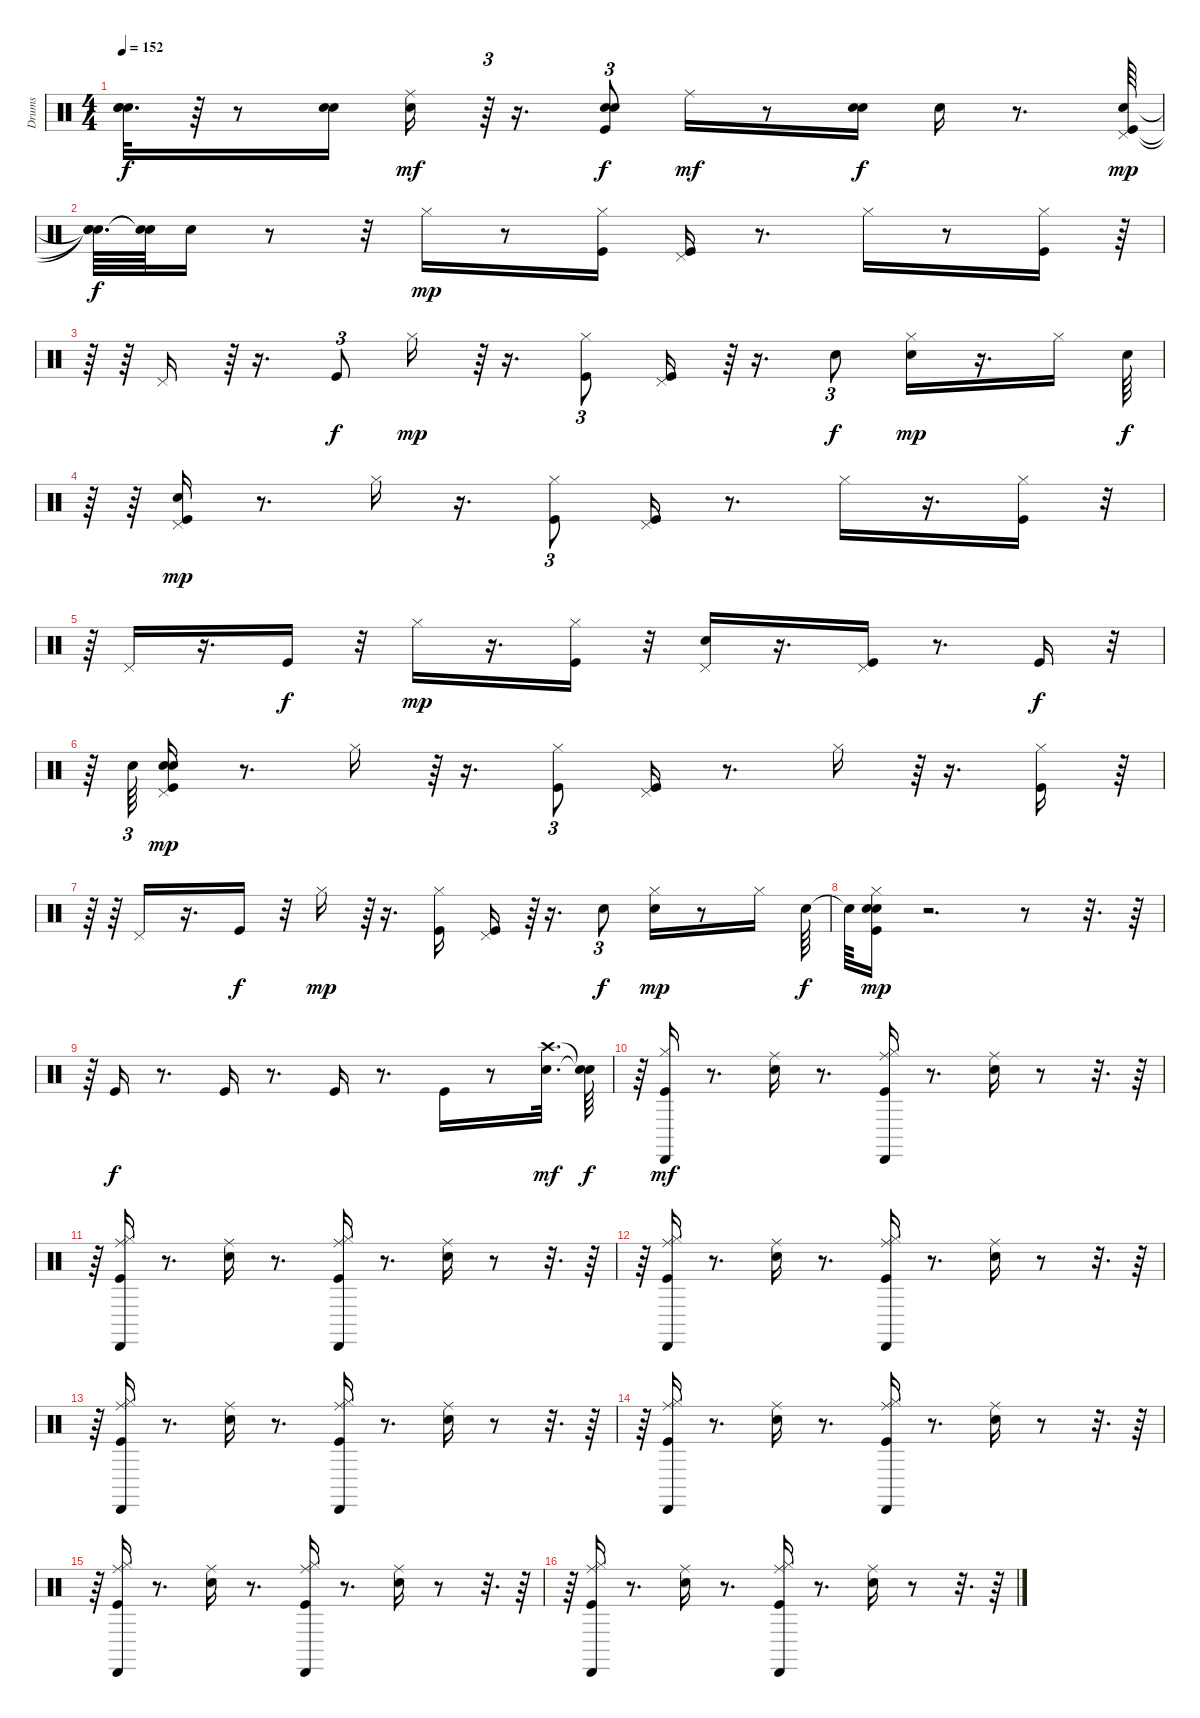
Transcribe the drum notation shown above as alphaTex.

\track ("Drums" "Drums") {instrument percussion}
\staff {score}
\articulation defaults
\ts (4 4)
\tempo 152
\clef neutral
\ks c
("Snare (hit)"{t} "Snare (hit)"{t} "Snare (hit)"{t}).32{d dy f} r.64 r.8 ("Hand Clap (hit)" "Snare (hit) 2").16 ("Snare (hit) 2" "Ride (middle)").16{dy mf} r.64{tu (3 2)} r.16{d} ("Hand Clap (hit)" "Kick (hit)" "Snare (hit) 2").8{tu (3 2) dy f} "Ride (middle)".16{dy mf} r.8 ("Hand Clap (hit)" "Snare (hit) 2").16{dy f} "Snare (hit) 2".16 r.8{d} ("Kick (hit)" "Snare (hit) 2" "Pedal Hi-Hat (hit)").64{dy mp} |
("Snare (hit)"{t} "Snare (hit)"{t} "Snare (hit)"{t}).64{d dy f} ("Snare (hit)"{t} "Snare (hit)"{t}).64 "Snare (hit) 2".16 r.8 r.32 "Hi-Hat (closed)".16{dy mp} r.8 ("Kick (hit)" "Hi-Hat (closed)").16 ("Kick (hit)" "Pedal Hi-Hat (hit)").16 r.8{d} "Hi-Hat (closed)".16 r.8 ("Kick (hit)" "Hi-Hat (closed)").16 r.64 |
r.64 r.64 "Pedal Hi-Hat (hit)".16 r.64{tu (3 2)} r.16{d} "Kick (hit)".8{tu (3 2) dy f} "Hi-Hat (closed)".16{dy mp} r.64{tu (3 2)} r.16{d} ("Kick (hit)" "Hi-Hat (closed)").8{tu (3 2)} ("Kick (hit)" "Pedal Hi-Hat (hit)").16 r.64{tu (3 2)} r.16{d} "Snare (hit) 2".8{tu (3 2) dy f} ("Hi-Hat (closed)" "Snare (hit) 2").16{dy mp} r.16{d} "Hi-Hat (closed)".16 "Snare (hit) 2".64{dy f} |
r.64 r.64 ("Kick (hit)" "Pedal Hi-Hat (hit)" "Snare (hit) 2").16{dy mp} r.8{d} "Hi-Hat (closed)".16 r.16{d} ("Kick (hit)" "Hi-Hat (closed)").8{tu (3 2)} ("Kick (hit)" "Pedal Hi-Hat (hit)").16 r.8{d} "Hi-Hat (closed)".16 r.16{d} ("Kick (hit)" "Hi-Hat (closed)").16 r.32{tu (5 4)} |
r.64 "Pedal Hi-Hat (hit)".16 r.16{d} "Kick (hit)".16{dy f} r.32 "Hi-Hat (closed)".16{dy mp} r.16{d} ("Kick (hit)" "Hi-Hat (closed)").16 r.32 ("Snare (hit) 2" "Pedal Hi-Hat (hit)").16 r.16{d} ("Kick (hit)" "Pedal Hi-Hat (hit)").16 r.8{d} "Kick (hit)".16{dy f} r.32{tu (5 4)} |
r.64 "Snare (hit) 2".64{tu (3 2)} ("Kick (hit)" "Snare (hit) 2" "Pedal Hi-Hat (hit)" "Snare (hit) 2").16{dy mp} r.8{d} "Hi-Hat (closed)".16 r.64{tu (3 2)} r.16{d} ("Kick (hit)" "Hi-Hat (closed)").8{tu (3 2)} ("Kick (hit)" "Pedal Hi-Hat (hit)").16 r.8{d} "Hi-Hat (closed)".16 r.64{tu (3 2)} r.16{d} ("Kick (hit)" "Hi-Hat (closed)").16 r.64 |
r.64 r.64 "Pedal Hi-Hat (hit)".16 r.16{d} "Kick (hit)".16{dy f} r.32 "Hi-Hat (closed)".16{dy mp} r.64{tu (3 2)} r.16{d} ("Kick (hit)" "Hi-Hat (closed)").16 ("Kick (hit)" "Pedal Hi-Hat (hit)").16 r.64{tu (3 2)} r.16{d} "Snare (hit) 2".8{tu (3 2) dy f} ("Hi-Hat (closed)" "Snare (hit) 2").16{dy mp} r.8 "Hi-Hat (closed)".16 "Snare (hit) 2".64{dy f} |
"Snare (hit)"{t}.64 ("Kick (hit)" "Snare (hit) 2" "Hi-Hat (closed)" "Snare (hit) 2").16{dy mp} r.2{d} r.8 r.32{d} r.64 |
r.64 "Kick (hit)".16{dy f} r.8{d} "Kick (hit)".16 r.8{d} "Kick (hit)".16 r.8{d} "Kick (hit)".16 r.8 ("Snare (hit) 2" "Crash high (hit)").32{d dy mf} ("Snare (hit)"{t} "Snare (hit)"{t}).64{dy f} |
r.64 ("Kick (hit)" "Hi-Hat (closed)" "Cabasa (hit)").16{dy mf} r.8{d} ("Snare (hit) 2" "Ride (middle)").16 r.8{d} ("Kick (hit)" "Hi-Hat (closed)" "Ride (middle)" "Cabasa (hit)").16 r.8{d} ("Snare (hit) 2" "Ride (middle)").16 r.8 r.32{d} r.64 |
r.64 ("Kick (hit)" "Hi-Hat (closed)" "Ride (middle)" "Cabasa (hit)").16 r.8{d} ("Snare (hit) 2" "Ride (middle)").16 r.8{d} ("Kick (hit)" "Hi-Hat (closed)" "Ride (middle)" "Cabasa (hit)").16 r.8{d} ("Ride (middle)" "Snare (hit) 2").16 r.8 r.32{d} r.64 |
r.64 ("Kick (hit)" "Hi-Hat (closed)" "Ride (middle)" "Cabasa (hit)").16 r.8{d} ("Ride (middle)" "Snare (hit) 2").16 r.8{d} ("Kick (hit)" "Hi-Hat (closed)" "Ride (middle)" "Cabasa (hit)").16 r.8{d} ("Snare (hit) 2" "Ride (middle)").16 r.8 r.32{d} r.64 |
r.64 ("Kick (hit)" "Hi-Hat (closed)" "Ride (middle)" "Cabasa (hit)").16 r.8{d} ("Snare (hit) 2" "Ride (middle)").16 r.8{d} ("Kick (hit)" "Hi-Hat (closed)" "Ride (middle)" "Cabasa (hit)").16 r.8{d} ("Ride (middle)" "Snare (hit) 2").16 r.8 r.32{d} r.64 |
r.64 ("Kick (hit)" "Hi-Hat (closed)" "Ride (middle)" "Cabasa (hit)").16 r.8{d} ("Snare (hit) 2" "Ride (middle)").16 r.8{d} ("Kick (hit)" "Hi-Hat (closed)" "Ride (middle)" "Cabasa (hit)").16 r.8{d} ("Ride (middle)" "Snare (hit) 2").16 r.8 r.32{d} r.64 |
r.64 ("Kick (hit)" "Hi-Hat (closed)" "Ride (middle)" "Cabasa (hit)").16 r.8{d} ("Ride (middle)" "Snare (hit) 2").16 r.8{d} ("Kick (hit)" "Hi-Hat (closed)" "Ride (middle)" "Cabasa (hit)").16 r.8{d} ("Ride (middle)" "Snare (hit) 2").16 r.8 r.32{d} r.64 |
r.64 ("Kick (hit)" "Hi-Hat (closed)" "Ride (middle)" "Cabasa (hit)").16 r.8{d} ("Snare (hit) 2" "Ride (middle)").16 r.8{d} ("Kick (hit)" "Hi-Hat (closed)" "Ride (middle)" "Cabasa (hit)").16 r.8{d} ("Snare (hit) 2" "Ride (middle)").16 r.8 r.32{d} r.64
